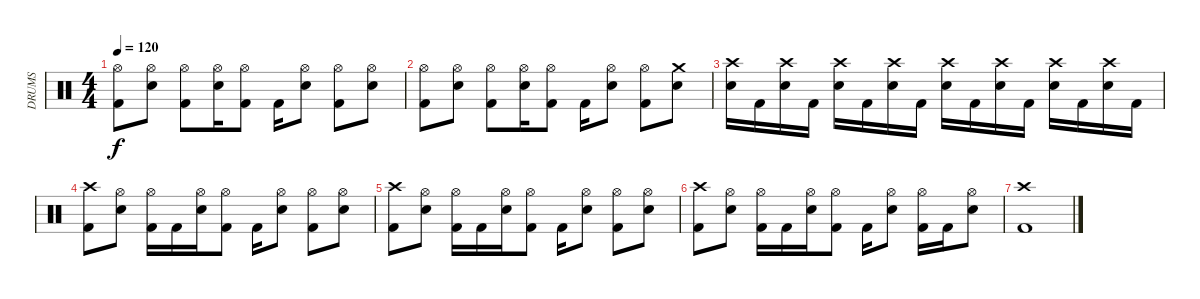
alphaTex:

\track ("DRUMS" "DRUMS") {instrument percussion}
\staff {score}
\articulation defaults
\ts (4 4)
\tempo 120
\clef neutral
\ks c
("Hi-Hat (open)" "Kick (hit) 2").8{dy f} ("Hi-Hat (open)" "Snare (hit) 2").8 ("Hi-Hat (open)" "Kick (hit) 2").8 ("Hi-Hat (open)" "Snare (hit) 2").16 ("Hi-Hat (open)" "Kick (hit) 2").8 "Kick (hit) 2".16 ("Hi-Hat (open)" "Snare (hit) 2").8 ("Hi-Hat (open)" "Kick (hit) 2").8 ("Hi-Hat (open)" "Snare (hit) 2").8 |
("Hi-Hat (open)" "Kick (hit) 2").8 ("Hi-Hat (open)" "Snare (hit) 2").8 ("Hi-Hat (open)" "Kick (hit) 2").8 ("Hi-Hat (open)" "Snare (hit) 2").16 ("Hi-Hat (open)" "Kick (hit) 2").8 "Kick (hit) 2".16 ("Hi-Hat (open)" "Snare (hit) 2").8 ("Hi-Hat (open)" "Kick (hit) 2").8 ("Crash medium (hit)" "Snare (hit) 2").8 |
("Crash high (hit)" "Snare (hit) 2").16 "Kick (hit) 2".16 ("Crash high (hit)" "Snare (hit) 2").16 "Kick (hit) 2".16 ("Crash high (hit)" "Snare (hit) 2").16 "Kick (hit) 2".16 ("Crash high (hit)" "Snare (hit) 2").16 "Kick (hit) 2".16 ("Crash high (hit)" "Snare (hit) 2").16 "Kick (hit) 2".16 ("Crash high (hit)" "Snare (hit) 2").16 "Kick (hit) 2".16 ("Crash high (hit)" "Snare (hit) 2").16 "Kick (hit) 2".16 ("Crash high (hit)" "Snare (hit) 2").16 "Kick (hit) 2".16 |
("Crash high (hit)" "Kick (hit) 2").8 ("Hi-Hat (open)" "Snare (hit) 2").8 ("Hi-Hat (open)" "Kick (hit) 2").16 "Kick (hit) 2".16 ("Hi-Hat (open)" "Snare (hit) 2").16 ("Hi-Hat (open)" "Kick (hit) 2").8 "Kick (hit) 2".16 ("Hi-Hat (open)" "Snare (hit) 2").8 ("Hi-Hat (open)" "Kick (hit) 2").8 ("Hi-Hat (open)" "Snare (hit) 2").8 |
("Crash high (hit)" "Kick (hit) 2").8 ("Hi-Hat (open)" "Snare (hit) 2").8 ("Hi-Hat (open)" "Kick (hit) 2").16 "Kick (hit) 2".16 ("Hi-Hat (open)" "Snare (hit) 2").16 ("Hi-Hat (open)" "Kick (hit) 2").8 "Kick (hit) 2".16 ("Hi-Hat (open)" "Snare (hit) 2").8 ("Hi-Hat (open)" "Kick (hit) 2").8 ("Hi-Hat (open)" "Snare (hit) 2").8 |
("Crash high (hit)" "Kick (hit) 2").8 ("Hi-Hat (open)" "Snare (hit) 2").8 ("Hi-Hat (open)" "Kick (hit) 2").16 "Kick (hit) 2".16 ("Hi-Hat (open)" "Snare (hit) 2").16 ("Hi-Hat (open)" "Kick (hit) 2").8 "Kick (hit) 2".16 ("Hi-Hat (open)" "Snare (hit) 2").8 ("Hi-Hat (open)" "Kick (hit) 2").16 "Kick (hit) 2".16 ("Hi-Hat (open)" "Snare (hit) 2").8 |
("Crash high (hit)" "Kick (hit) 2").1
